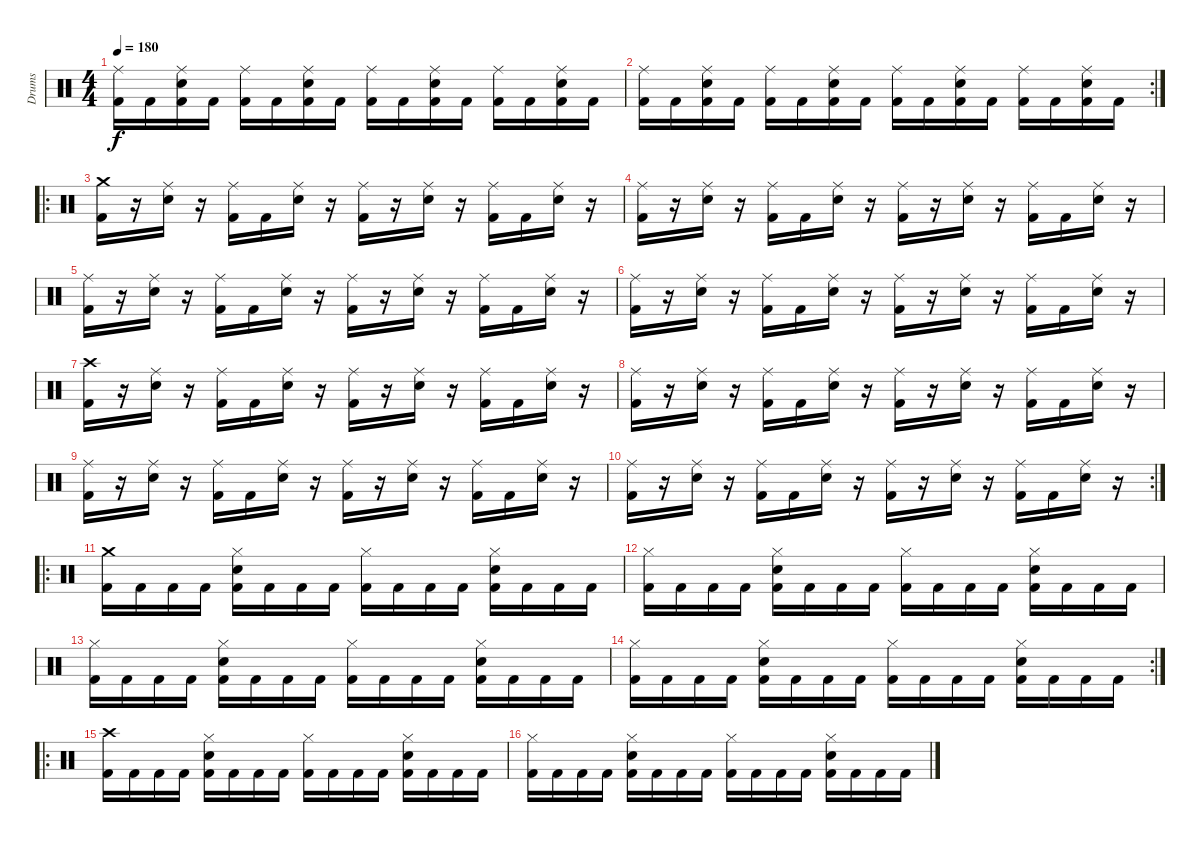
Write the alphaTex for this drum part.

\track ("Drums" "Drums") {instrument percussion}
\staff {score}
\articulation defaults
\ts (4 4)
\tempo 180
\clef neutral
\ks c
("Kick (hit) 2" "Ride (middle)").16{dy f} "Kick (hit) 2".16 ("Kick (hit) 2" "Ride (middle)" "Snare (hit) 2").16 "Kick (hit) 2".16 ("Kick (hit) 2" "Ride (middle)").16 "Kick (hit) 2".16 ("Kick (hit) 2" "Ride (middle)" "Snare (hit) 2").16 "Kick (hit) 2".16 ("Kick (hit) 2" "Ride (middle)").16 "Kick (hit) 2".16 ("Kick (hit) 2" "Ride (middle)" "Snare (hit) 2").16 "Kick (hit) 2".16 ("Kick (hit) 2" "Ride (middle)").16 "Kick (hit) 2".16 ("Kick (hit) 2" "Ride (middle)" "Snare (hit) 2").16 "Kick (hit) 2".16 |
\rc 2
("Kick (hit) 2" "Ride (middle)").16 "Kick (hit) 2".16 ("Kick (hit) 2" "Ride (middle)" "Snare (hit) 2").16 "Kick (hit) 2".16 ("Kick (hit) 2" "Ride (middle)").16 "Kick (hit) 2".16 ("Kick (hit) 2" "Ride (middle)" "Snare (hit) 2").16 "Kick (hit) 2".16 ("Kick (hit) 2" "Ride (middle)").16 "Kick (hit) 2".16 ("Kick (hit) 2" "Ride (middle)" "Snare (hit) 2").16 "Kick (hit) 2".16 ("Kick (hit) 2" "Ride (middle)").16 "Kick (hit) 2".16 ("Kick (hit) 2" "Ride (middle)" "Snare (hit) 2").16 "Kick (hit) 2".16 |
\ro
("Kick (hit) 2" "Crash medium (hit)").16 r.16 ("Ride (middle)" "Snare (hit) 2").16 r.16 ("Kick (hit) 2" "Ride (middle)").16 "Kick (hit) 2".16 ("Ride (middle)" "Snare (hit) 2").16 r.16 ("Kick (hit) 2" "Ride (middle)").16 r.16 ("Ride (middle)" "Snare (hit) 2").16 r.16 ("Kick (hit) 2" "Ride (middle)").16 "Kick (hit) 2".16 ("Ride (middle)" "Snare (hit) 2").16 r.16 |
("Kick (hit) 2" "Ride (middle)").16 r.16 ("Ride (middle)" "Snare (hit) 2").16 r.16 ("Kick (hit) 2" "Ride (middle)").16 "Kick (hit) 2".16 ("Ride (middle)" "Snare (hit) 2").16 r.16 ("Kick (hit) 2" "Ride (middle)").16 r.16 ("Ride (middle)" "Snare (hit) 2").16 r.16 ("Kick (hit) 2" "Ride (middle)").16 "Kick (hit) 2".16 ("Ride (middle)" "Snare (hit) 2").16 r.16 |
("Kick (hit) 2" "Ride (middle)").16 r.16 ("Ride (middle)" "Snare (hit) 2").16 r.16 ("Kick (hit) 2" "Ride (middle)").16 "Kick (hit) 2".16 ("Ride (middle)" "Snare (hit) 2").16 r.16 ("Kick (hit) 2" "Ride (middle)").16 r.16 ("Ride (middle)" "Snare (hit) 2").16 r.16 ("Kick (hit) 2" "Ride (middle)").16 "Kick (hit) 2".16 ("Ride (middle)" "Snare (hit) 2").16 r.16 |
("Kick (hit) 2" "Ride (middle)").16 r.16 ("Ride (middle)" "Snare (hit) 2").16 r.16 ("Kick (hit) 2" "Ride (middle)").16 "Kick (hit) 2".16 ("Ride (middle)" "Snare (hit) 2").16 r.16 ("Kick (hit) 2" "Ride (middle)").16 r.16 ("Ride (middle)" "Snare (hit) 2").16 r.16 ("Kick (hit) 2" "Ride (middle)").16 "Kick (hit) 2".16 ("Ride (middle)" "Snare (hit) 2").16 r.16 |
("Kick (hit) 2" "Crash high (hit)").16 r.16 ("Ride (middle)" "Snare (hit) 2").16 r.16 ("Kick (hit) 2" "Ride (middle)").16 "Kick (hit) 2".16 ("Ride (middle)" "Snare (hit) 2").16 r.16 ("Kick (hit) 2" "Ride (middle)").16 r.16 ("Ride (middle)" "Snare (hit) 2").16 r.16 ("Kick (hit) 2" "Ride (middle)").16 "Kick (hit) 2".16 ("Ride (middle)" "Snare (hit) 2").16 r.16 |
("Kick (hit) 2" "Ride (middle)").16 r.16 ("Ride (middle)" "Snare (hit) 2").16 r.16 ("Kick (hit) 2" "Ride (middle)").16 "Kick (hit) 2".16 ("Ride (middle)" "Snare (hit) 2").16 r.16 ("Kick (hit) 2" "Ride (middle)").16 r.16 ("Ride (middle)" "Snare (hit) 2").16 r.16 ("Kick (hit) 2" "Ride (middle)").16 "Kick (hit) 2".16 ("Ride (middle)" "Snare (hit) 2").16 r.16 |
("Kick (hit) 2" "Ride (middle)").16 r.16 ("Ride (middle)" "Snare (hit) 2").16 r.16 ("Kick (hit) 2" "Ride (middle)").16 "Kick (hit) 2".16 ("Ride (middle)" "Snare (hit) 2").16 r.16 ("Kick (hit) 2" "Ride (middle)").16 r.16 ("Ride (middle)" "Snare (hit) 2").16 r.16 ("Kick (hit) 2" "Ride (middle)").16 "Kick (hit) 2".16 ("Ride (middle)" "Snare (hit) 2").16 r.16 |
\rc 2
("Kick (hit) 2" "Ride (middle)").16 r.16 ("Ride (middle)" "Snare (hit) 2").16 r.16 ("Kick (hit) 2" "Ride (middle)").16 "Kick (hit) 2".16 ("Ride (middle)" "Snare (hit) 2").16 r.16 ("Kick (hit) 2" "Ride (middle)").16 r.16 ("Ride (middle)" "Snare (hit) 2").16 r.16 ("Kick (hit) 2" "Ride (middle)").16 "Kick (hit) 2".16 ("Ride (middle)" "Snare (hit) 2").16 r.16 |
\ro
("Kick (hit) 2" "Crash medium (hit)").16 "Kick (hit) 2".16 "Kick (hit) 2".16 "Kick (hit) 2".16 ("Kick (hit) 2" "Hi-Hat (closed)" "Snare (hit) 2").16 "Kick (hit) 2".16 "Kick (hit) 2".16 "Kick (hit) 2".16 ("Kick (hit) 2" "Hi-Hat (closed)").16 "Kick (hit) 2".16 "Kick (hit) 2".16 "Kick (hit) 2".16 ("Kick (hit) 2" "Hi-Hat (closed)" "Snare (hit) 2").16 "Kick (hit) 2".16 "Kick (hit) 2".16 "Kick (hit) 2".16 |
("Kick (hit) 2" "Hi-Hat (closed)").16 "Kick (hit) 2".16 "Kick (hit) 2".16 "Kick (hit) 2".16 ("Kick (hit) 2" "Hi-Hat (closed)" "Snare (hit) 2").16 "Kick (hit) 2".16 "Kick (hit) 2".16 "Kick (hit) 2".16 ("Kick (hit) 2" "Hi-Hat (closed)").16 "Kick (hit) 2".16 "Kick (hit) 2".16 "Kick (hit) 2".16 ("Kick (hit) 2" "Hi-Hat (closed)" "Snare (hit) 2").16 "Kick (hit) 2".16 "Kick (hit) 2".16 "Kick (hit) 2".16 |
("Kick (hit) 2" "Hi-Hat (closed)").16 "Kick (hit) 2".16 "Kick (hit) 2".16 "Kick (hit) 2".16 ("Kick (hit) 2" "Hi-Hat (closed)" "Snare (hit) 2").16 "Kick (hit) 2".16 "Kick (hit) 2".16 "Kick (hit) 2".16 ("Kick (hit) 2" "Hi-Hat (closed)").16 "Kick (hit) 2".16 "Kick (hit) 2".16 "Kick (hit) 2".16 ("Kick (hit) 2" "Hi-Hat (closed)" "Snare (hit) 2").16 "Kick (hit) 2".16 "Kick (hit) 2".16 "Kick (hit) 2".16 |
\rc 2
("Kick (hit) 2" "Hi-Hat (closed)").16 "Kick (hit) 2".16 "Kick (hit) 2".16 "Kick (hit) 2".16 ("Kick (hit) 2" "Hi-Hat (closed)" "Snare (hit) 2").16 "Kick (hit) 2".16 "Kick (hit) 2".16 "Kick (hit) 2".16 ("Kick (hit) 2" "Hi-Hat (closed)").16 "Kick (hit) 2".16 "Kick (hit) 2".16 "Kick (hit) 2".16 ("Kick (hit) 2" "Hi-Hat (closed)" "Snare (hit) 2").16 "Kick (hit) 2".16 "Kick (hit) 2".16 "Kick (hit) 2".16 |
\ro
("Kick (hit) 2" "Crash high (hit)").16 "Kick (hit) 2".16 "Kick (hit) 2".16 "Kick (hit) 2".16 ("Kick (hit) 2" "Hi-Hat (closed)" "Snare (hit) 2").16 "Kick (hit) 2".16 "Kick (hit) 2".16 "Kick (hit) 2".16 ("Kick (hit) 2" "Hi-Hat (closed)").16 "Kick (hit) 2".16 "Kick (hit) 2".16 "Kick (hit) 2".16 ("Kick (hit) 2" "Hi-Hat (closed)" "Snare (hit) 2").16 "Kick (hit) 2".16 "Kick (hit) 2".16 "Kick (hit) 2".16 |
("Kick (hit) 2" "Hi-Hat (closed)").16 "Kick (hit) 2".16 "Kick (hit) 2".16 "Kick (hit) 2".16 ("Kick (hit) 2" "Hi-Hat (closed)" "Snare (hit) 2").16 "Kick (hit) 2".16 "Kick (hit) 2".16 "Kick (hit) 2".16 ("Kick (hit) 2" "Hi-Hat (closed)").16 "Kick (hit) 2".16 "Kick (hit) 2".16 "Kick (hit) 2".16 ("Kick (hit) 2" "Hi-Hat (closed)" "Snare (hit) 2").16 "Kick (hit) 2".16 "Kick (hit) 2".16 "Kick (hit) 2".16
